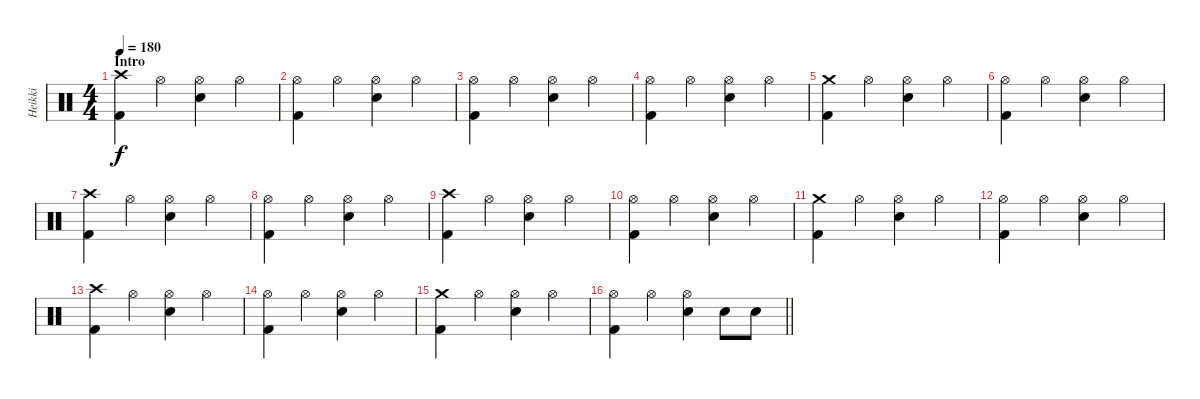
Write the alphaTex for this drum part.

\track ("Heikki" "Heikki") {instrument percussion}
\staff {score}
\articulation defaults
\ts (4 4)
\section ("" "Intro")
\tempo 180
\clef neutral
\ks c
("Crash high (hit)" "Kick (hit) 2").4{dy f} "Hi-Hat (open)".4 ("Hi-Hat (open)" "Electric Snare (hit)").4 "Hi-Hat (open)".4 |
("Hi-Hat (open)" "Kick (hit) 2").4 "Hi-Hat (open)".4 ("Hi-Hat (open)" "Electric Snare (hit)").4 "Hi-Hat (open)".4 |
("Hi-Hat (open)" "Kick (hit) 2").4 "Hi-Hat (open)".4 ("Hi-Hat (open)" "Electric Snare (hit)").4 "Hi-Hat (open)".4 |
("Hi-Hat (open)" "Kick (hit) 2").4 "Hi-Hat (open)".4 ("Hi-Hat (open)" "Electric Snare (hit)").4 "Hi-Hat (open)".4 |
("Crash medium (hit)" "Kick (hit) 2").4 "Hi-Hat (open)".4 ("Hi-Hat (open)" "Electric Snare (hit)").4 "Hi-Hat (open)".4 |
("Hi-Hat (open)" "Kick (hit) 2").4 "Hi-Hat (open)".4 ("Hi-Hat (open)" "Electric Snare (hit)").4 "Hi-Hat (open)".4 |
("Crash high (hit)" "Kick (hit) 2").4 "Hi-Hat (open)".4 ("Hi-Hat (open)" "Electric Snare (hit)").4 "Hi-Hat (open)".4 |
("Hi-Hat (open)" "Kick (hit) 2").4 "Hi-Hat (open)".4 ("Hi-Hat (open)" "Electric Snare (hit)").4 "Hi-Hat (open)".4 |
("Crash high (hit)" "Kick (hit) 2").4 "Hi-Hat (open)".4 ("Hi-Hat (open)" "Electric Snare (hit)").4 "Hi-Hat (open)".4 |
("Hi-Hat (open)" "Kick (hit) 2").4 "Hi-Hat (open)".4 ("Hi-Hat (open)" "Electric Snare (hit)").4 "Hi-Hat (open)".4 |
("Crash medium (hit)" "Kick (hit) 2").4 "Hi-Hat (open)".4 ("Hi-Hat (open)" "Electric Snare (hit)").4 "Hi-Hat (open)".4 |
("Hi-Hat (open)" "Kick (hit) 2").4 "Hi-Hat (open)".4 ("Hi-Hat (open)" "Electric Snare (hit)").4 "Hi-Hat (open)".4 |
("Crash high (hit)" "Kick (hit) 2").4 "Hi-Hat (open)".4 ("Hi-Hat (open)" "Electric Snare (hit)").4 "Hi-Hat (open)".4 |
("Hi-Hat (open)" "Kick (hit) 2").4 "Hi-Hat (open)".4 ("Hi-Hat (open)" "Electric Snare (hit)").4 "Hi-Hat (open)".4 |
("Crash medium (hit)" "Kick (hit) 2").4 "Hi-Hat (open)".4 ("Hi-Hat (open)" "Electric Snare (hit)").4 "Hi-Hat (open)".4 |
\barLineRight lightlight
("Hi-Hat (open)" "Kick (hit) 2").4 "Hi-Hat (open)".4 ("Hi-Hat (open)" "Electric Snare (hit)").4 "Electric Snare (hit)".8 "Electric Snare (hit)".8
